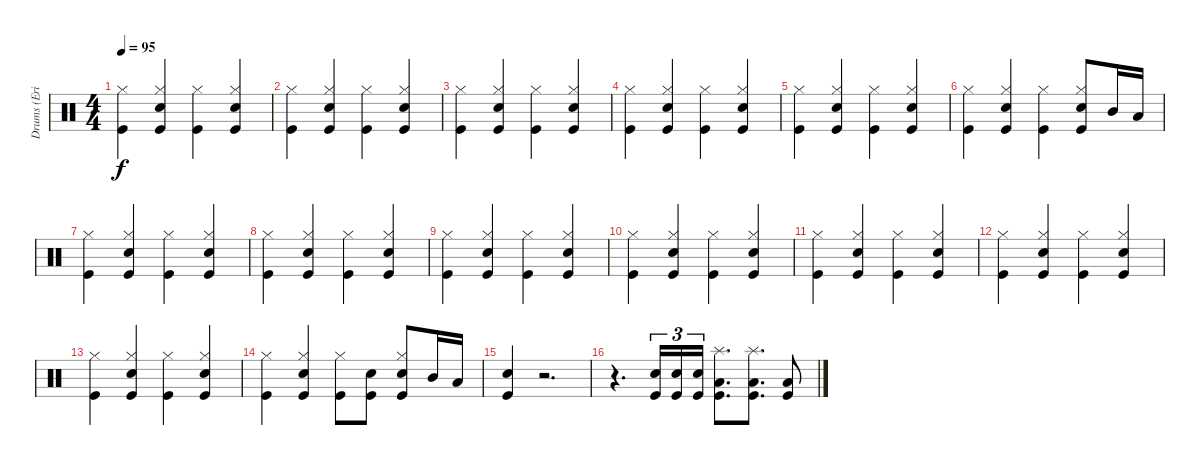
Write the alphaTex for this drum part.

\track ("Drums (Eric Singer)" "Drums (Eri") {instrument percussion}
\staff {score}
\articulation defaults
\ts (4 4)
\tempo 95
\clef neutral
\ks c
("Kick (hit)" "Hi-Hat (closed)").4{dy f} ("Snare (hit) 2" "Kick (hit)" "Hi-Hat (closed)").4 ("Kick (hit)" "Hi-Hat (closed)").4 ("Snare (hit) 2" "Kick (hit)" "Hi-Hat (closed)").4 |
("Kick (hit)" "Hi-Hat (closed)").4 ("Snare (hit) 2" "Kick (hit)" "Hi-Hat (closed)").4 ("Kick (hit)" "Hi-Hat (closed)").4 ("Snare (hit) 2" "Kick (hit)" "Hi-Hat (closed)").4 |
("Kick (hit)" "Hi-Hat (closed)").4 ("Snare (hit) 2" "Kick (hit)" "Hi-Hat (closed)").4 ("Kick (hit)" "Hi-Hat (closed)").4 ("Snare (hit) 2" "Kick (hit)" "Hi-Hat (closed)").4 |
("Kick (hit)" "Hi-Hat (closed)").4 ("Snare (hit) 2" "Kick (hit)" "Hi-Hat (closed)").4 ("Kick (hit)" "Hi-Hat (closed)").4 ("Snare (hit) 2" "Kick (hit)" "Hi-Hat (closed)").4 |
("Kick (hit)" "Hi-Hat (closed)").4 ("Snare (hit) 2" "Kick (hit)" "Hi-Hat (closed)").4 ("Kick (hit)" "Hi-Hat (closed)").4 ("Snare (hit) 2" "Kick (hit)" "Hi-Hat (closed)").4 |
("Kick (hit)" "Hi-Hat (closed)").4 ("Snare (hit) 2" "Kick (hit)" "Hi-Hat (closed)").4 ("Kick (hit)" "Hi-Hat (closed)").4 ("Snare (hit) 2" "Kick (hit)" "Hi-Hat (closed)").8 "Mid Tom (hit)".16 "Low Tom (hit)".16 |
("Kick (hit)" "Hi-Hat (closed)").4 ("Snare (hit) 2" "Kick (hit)" "Hi-Hat (closed)").4 ("Kick (hit)" "Hi-Hat (closed)").4 ("Snare (hit) 2" "Kick (hit)" "Hi-Hat (closed)").4 |
("Kick (hit)" "Hi-Hat (closed)").4 ("Snare (hit) 2" "Kick (hit)" "Hi-Hat (closed)").4 ("Kick (hit)" "Hi-Hat (closed)").4 ("Snare (hit) 2" "Kick (hit)" "Hi-Hat (closed)").4 |
("Kick (hit)" "Hi-Hat (closed)").4 ("Snare (hit) 2" "Kick (hit)" "Hi-Hat (closed)").4 ("Kick (hit)" "Hi-Hat (closed)").4 ("Snare (hit) 2" "Kick (hit)" "Hi-Hat (closed)").4 |
("Kick (hit)" "Hi-Hat (closed)").4 ("Snare (hit) 2" "Kick (hit)" "Hi-Hat (closed)").4 ("Kick (hit)" "Hi-Hat (closed)").4 ("Snare (hit) 2" "Kick (hit)" "Hi-Hat (closed)").4 |
("Kick (hit)" "Hi-Hat (closed)").4 ("Snare (hit) 2" "Kick (hit)" "Hi-Hat (closed)").4 ("Kick (hit)" "Hi-Hat (closed)").4 ("Snare (hit) 2" "Kick (hit)" "Hi-Hat (closed)").4 |
("Kick (hit)" "Hi-Hat (closed)").4 ("Snare (hit) 2" "Kick (hit)" "Hi-Hat (closed)").4 ("Kick (hit)" "Hi-Hat (closed)").4 ("Snare (hit) 2" "Kick (hit)" "Hi-Hat (closed)").4 |
("Kick (hit)" "Hi-Hat (closed)").4 ("Snare (hit) 2" "Kick (hit)" "Hi-Hat (closed)").4 ("Kick (hit)" "Hi-Hat (closed)").4 ("Snare (hit) 2" "Kick (hit)" "Hi-Hat (closed)").4 |
("Kick (hit)" "Hi-Hat (closed)").4 ("Snare (hit) 2" "Kick (hit)" "Hi-Hat (closed)").4 ("Kick (hit)" "Hi-Hat (closed)").8 ("Snare (hit) 2" "Kick (hit)").8 ("Snare (hit) 2" "Kick (hit)" "Hi-Hat (closed)").8 "Mid Tom (hit)".16 "Low Tom (hit)".16 |
("Snare (hit) 2" "Kick (hit)").4 r.2{d} |
r.4{d} ("Snare (hit) 2" "Kick (hit)").16{tu (3 2)} ("Snare (hit) 2" "Kick (hit)").16{tu (3 2)} ("Snare (hit) 2" "Kick (hit)").16{tu (3 2)} ("Low Tom (hit)" "Kick (hit)" "Splash (hit)").8{d} ("Low Tom (hit)" "Kick (hit)" "Splash (hit)").8{d} ("Low Tom (hit)" "Kick (hit)").8
